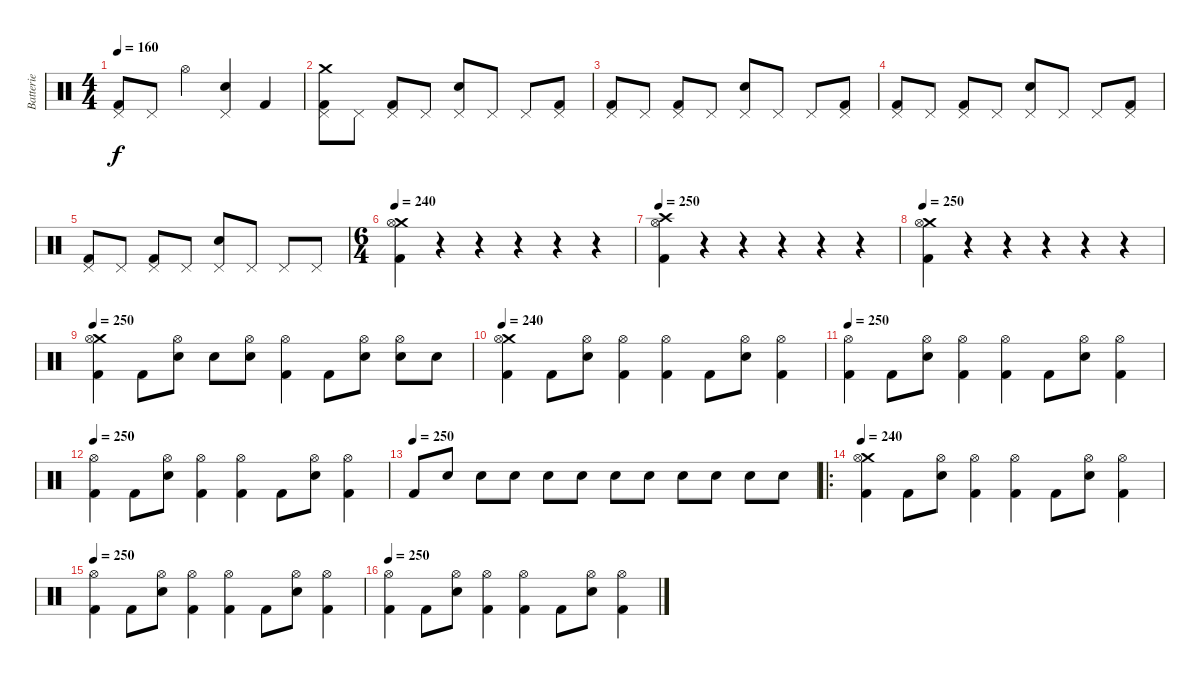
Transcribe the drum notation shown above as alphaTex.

\track ("Batterie" "Batterie") {instrument percussion}
\staff {score}
\articulation defaults
\ts (4 4)
\tempo 160
\clef neutral
\ks c
("Pedal Hi-Hat (hit)" "Kick (hit) 2").8{dy f} "Pedal Hi-Hat (hit)".8 "Hi-Hat (open)".4 ("Pedal Hi-Hat (hit)" "Electric Snare (hit)").4 "Kick (hit) 2".4 |
("Crash medium (hit)" "Pedal Hi-Hat (hit)" "Kick (hit) 2").8 "Pedal Hi-Hat (hit)".8 ("Pedal Hi-Hat (hit)" "Kick (hit) 2").8 "Pedal Hi-Hat (hit)".8 ("Pedal Hi-Hat (hit)" "Electric Snare (hit)").8 "Pedal Hi-Hat (hit)".8 "Pedal Hi-Hat (hit)".8 ("Pedal Hi-Hat (hit)" "Kick (hit) 2").8 |
("Pedal Hi-Hat (hit)" "Kick (hit) 2").8 "Pedal Hi-Hat (hit)".8 ("Pedal Hi-Hat (hit)" "Kick (hit) 2").8 "Pedal Hi-Hat (hit)".8 ("Pedal Hi-Hat (hit)" "Electric Snare (hit)").8 "Pedal Hi-Hat (hit)".8 "Pedal Hi-Hat (hit)".8 ("Pedal Hi-Hat (hit)" "Kick (hit) 2").8 |
("Pedal Hi-Hat (hit)" "Kick (hit) 2").8 "Pedal Hi-Hat (hit)".8 ("Pedal Hi-Hat (hit)" "Kick (hit) 2").8 "Pedal Hi-Hat (hit)".8 ("Pedal Hi-Hat (hit)" "Electric Snare (hit)").8 "Pedal Hi-Hat (hit)".8 "Pedal Hi-Hat (hit)".8 ("Pedal Hi-Hat (hit)" "Kick (hit) 2").8 |
("Pedal Hi-Hat (hit)" "Kick (hit) 2").8 "Pedal Hi-Hat (hit)".8 ("Pedal Hi-Hat (hit)" "Kick (hit) 2").8 "Pedal Hi-Hat (hit)".8 ("Pedal Hi-Hat (hit)" "Electric Snare (hit)").8 "Pedal Hi-Hat (hit)".8 "Pedal Hi-Hat (hit)".8 "Pedal Hi-Hat (hit)".8 |
\ts (6 4)
\tempo 240
("Crash medium (hit)" "Hi-Hat (open)" "Kick (hit) 2").4 r.4 r.4 r.4 r.4 r.4 |
\tempo 250
("Crash high (hit)" "Hi-Hat (open)" "Kick (hit) 2").4 r.4 r.4 r.4 r.4 r.4 |
\tempo 250
("Crash medium (hit)" "Hi-Hat (open)" "Kick (hit) 2").4 r.4 r.4 r.4 r.4 r.4 |
\tempo 250
("Crash medium (hit)" "Hi-Hat (open)" "Kick (hit) 2").4 "Kick (hit) 2".8 ("Hi-Hat (open)" "Electric Snare (hit)").8 "Electric Snare (hit)".8 ("Hi-Hat (open)" "Electric Snare (hit)").8 ("Hi-Hat (open)" "Kick (hit) 2").4 "Kick (hit) 2".8 ("Hi-Hat (open)" "Electric Snare (hit)").8 ("Hi-Hat (open)" "Electric Snare (hit)").8 "Electric Snare (hit)".8 |
\tempo 240
("Crash medium (hit)" "Hi-Hat (open)" "Kick (hit) 2").4 "Kick (hit) 2".8 ("Hi-Hat (open)" "Electric Snare (hit)").8 ("Hi-Hat (open)" "Kick (hit) 2").4 ("Hi-Hat (open)" "Kick (hit) 2").4 "Kick (hit) 2".8 ("Hi-Hat (open)" "Electric Snare (hit)").8 ("Hi-Hat (open)" "Kick (hit) 2").4 |
\tempo 250
("Hi-Hat (open)" "Kick (hit) 2").4 "Kick (hit) 2".8 ("Hi-Hat (open)" "Electric Snare (hit)").8 ("Hi-Hat (open)" "Kick (hit) 2").4 ("Hi-Hat (open)" "Kick (hit) 2").4 "Kick (hit) 2".8 ("Hi-Hat (open)" "Electric Snare (hit)").8 ("Hi-Hat (open)" "Kick (hit) 2").4 |
\tempo 250
("Hi-Hat (open)" "Kick (hit) 2").4 "Kick (hit) 2".8 ("Hi-Hat (open)" "Electric Snare (hit)").8 ("Hi-Hat (open)" "Kick (hit) 2").4 ("Hi-Hat (open)" "Kick (hit) 2").4 "Kick (hit) 2".8 ("Hi-Hat (open)" "Electric Snare (hit)").8 ("Hi-Hat (open)" "Kick (hit) 2").4 |
\tempo (250)
"Kick (hit) 2".8 "Electric Snare (hit)".8 "Electric Snare (hit)".8 "Electric Snare (hit)".8 "Electric Snare (hit)".8 "Electric Snare (hit)".8 "Electric Snare (hit)".8 "Electric Snare (hit)".8 "Electric Snare (hit)".8 "Electric Snare (hit)".8 "Electric Snare (hit)".8 "Electric Snare (hit)".8 |
\ro
\tempo 240
("Crash medium (hit)" "Hi-Hat (open)" "Kick (hit) 2").4 "Kick (hit) 2".8 ("Hi-Hat (open)" "Electric Snare (hit)").8 ("Hi-Hat (open)" "Kick (hit) 2").4 ("Hi-Hat (open)" "Kick (hit) 2").4 "Kick (hit) 2".8 ("Hi-Hat (open)" "Electric Snare (hit)").8 ("Hi-Hat (open)" "Kick (hit) 2").4 |
\tempo 250
("Hi-Hat (open)" "Kick (hit) 2").4 "Kick (hit) 2".8 ("Hi-Hat (open)" "Electric Snare (hit)").8 ("Hi-Hat (open)" "Kick (hit) 2").4 ("Hi-Hat (open)" "Kick (hit) 2").4 "Kick (hit) 2".8 ("Hi-Hat (open)" "Electric Snare (hit)").8 ("Hi-Hat (open)" "Kick (hit) 2").4 |
\tempo 250
("Hi-Hat (open)" "Kick (hit) 2").4 "Kick (hit) 2".8 ("Hi-Hat (open)" "Electric Snare (hit)").8 ("Hi-Hat (open)" "Kick (hit) 2").4 ("Hi-Hat (open)" "Kick (hit) 2").4 "Kick (hit) 2".8 ("Hi-Hat (open)" "Electric Snare (hit)").8 ("Hi-Hat (open)" "Kick (hit) 2").4
